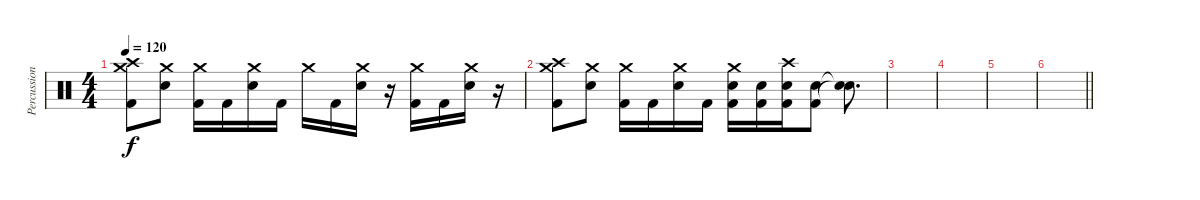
\track ("Percussion" "Percussion") {instrument percussion}
\staff {score}
\articulation defaults
\ts (4 4)
\tempo 120
\clef neutral
\ks c
("Crash medium (hit)" "Crash high (hit)" "Kick (hit) 2").8{dy f} ("Crash medium (hit)" "Electric Snare (hit)").8 ("Crash medium (hit)" "Kick (hit) 2").16 "Kick (hit) 2".16 ("Crash medium (hit)" "Electric Snare (hit)").16 "Kick (hit) 2".16 "Crash medium (hit)".16 "Kick (hit) 2".16 ("Crash medium (hit)" "Electric Snare (hit)").16 r.16 ("Crash medium (hit)" "Kick (hit) 2").16 "Kick (hit) 2".16 ("Crash medium (hit)" "Electric Snare (hit)").16 r.16 |
("Crash medium (hit)" "Crash high (hit)" "Kick (hit) 2").8 ("Crash medium (hit)" "Electric Snare (hit)").8 ("Crash medium (hit)" "Kick (hit) 2").16 "Kick (hit) 2".16 ("Crash medium (hit)" "Electric Snare (hit)").16 "Kick (hit) 2".16 ("Crash medium (hit)" "Kick (hit) 2" "Electric Snare (hit)").16 ("Kick (hit) 2" "Electric Snare (hit)").16 ("Crash high (hit)" "Kick (hit) 2" "Electric Snare (hit)").16 ("Kick (hit) 2" "Electric Snare (hit)").8 ("Snare (hit)"{t} "Snare (hit)"{t}).8{d} |
|
|
|
\barLineRight lightlight
